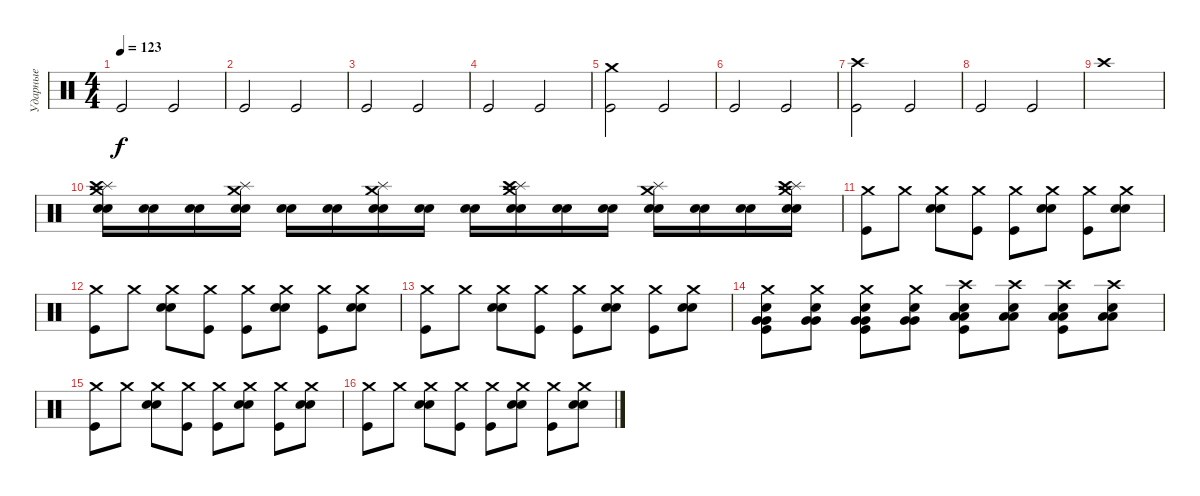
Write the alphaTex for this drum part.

\track ("Ударные" "Ударные") {instrument percussion}
\staff {score}
\articulation defaults
\ts (4 4)
\tempo 123
\clef neutral
\ks c "Kick (hit)".2{dy f} "Kick (hit)".2
|
"Kick (hit)".2 "Kick (hit)".2 |
"Kick (hit)".2 "Kick (hit)".2 |
"Kick (hit)".2 "Kick (hit)".2 |
("Crash medium (hit)" "Kick (hit)").2 "Kick (hit)".2 |
"Kick (hit)".2 "Kick (hit)".2 |
("Crash high (hit)" "Kick (hit)").2 "Kick (hit)".2 |
"Kick (hit)".2 "Kick (hit)".2 |
"Crash high (hit)".1 |
("Crash medium (hit)" "Splash (hit)" "Snare (hit) 2" "Snare (hit) 2" "Crash high (hit)").16 ("Snare (hit) 2" "Snare (hit) 2").16 ("Snare (hit) 2" "Snare (hit) 2").16 ("Crash medium (hit)" "Splash (hit)" "Snare (hit) 2" "Snare (hit) 2").16 ("Snare (hit) 2" "Snare (hit) 2").16 ("Snare (hit) 2" "Snare (hit) 2").16 ("Crash medium (hit)" "Splash (hit)" "Snare (hit) 2" "Snare (hit) 2").16 ("Snare (hit) 2" "Snare (hit) 2").16 ("Electric Snare (hit)" "Electric Snare (hit)").16 ("Crash medium (hit)" "Splash (hit)" "Electric Snare (hit)" "Electric Snare (hit)" "Crash high (hit)").16 ("Electric Snare (hit)" "Electric Snare (hit)").16 ("Electric Snare (hit)" "Electric Snare (hit)").16 ("Crash medium (hit)" "Splash (hit)" "Electric Snare (hit)" "Electric Snare (hit)").16 ("Electric Snare (hit)" "Electric Snare (hit)").16 ("Electric Snare (hit)" "Electric Snare (hit)").16 ("Crash medium (hit)" "Splash (hit)" "Electric Snare (hit)" "Electric Snare (hit)" "Crash high (hit)").16 |
("Crash medium (hit)" "Kick (hit)").8 "Crash medium (hit)".8 ("Crash medium (hit)" "Snare (hit) 2" "Snare (hit) 2").8 ("Crash medium (hit)" "Kick (hit)").8 ("Crash medium (hit)" "Kick (hit)").8 ("Crash medium (hit)" "Snare (hit) 2" "Snare (hit) 2").8 ("Crash medium (hit)" "Kick (hit)").8 ("Crash medium (hit)" "Electric Snare (hit)" "Electric Snare (hit)").8 |
("Crash medium (hit)" "Kick (hit)").8 "Crash medium (hit)".8 ("Crash medium (hit)" "Snare (hit) 2" "Snare (hit) 2").8 ("Crash medium (hit)" "Kick (hit)").8 ("Crash medium (hit)" "Kick (hit)").8 ("Crash medium (hit)" "Snare (hit) 2" "Snare (hit) 2").8 ("Crash medium (hit)" "Kick (hit)").8 ("Crash medium (hit)" "Electric Snare (hit)" "Electric Snare (hit)").8 |
("Crash medium (hit)" "Kick (hit)").8 "Crash medium (hit)".8 ("Crash medium (hit)" "Snare (hit) 2" "Snare (hit) 2").8 ("Crash medium (hit)" "Kick (hit)").8 ("Crash medium (hit)" "Kick (hit)").8 ("Crash medium (hit)" "Snare (hit) 2" "Snare (hit) 2").8 ("Crash medium (hit)" "Kick (hit)").8 ("Crash medium (hit)" "Electric Snare (hit)" "Electric Snare (hit)").8 |
("Very Low Tom (hit)" "Very Low Tom (hit)" "Crash medium (hit)" "Snare (hit) 2" "Kick (hit)").8 ("Very Low Tom (hit)" "Very Low Tom (hit)" "Crash medium (hit)" "Snare (hit) 2").8 ("Very Low Tom (hit)" "Very Low Tom (hit)" "Crash medium (hit)" "Snare (hit) 2" "Kick (hit)").8 ("Very Low Tom (hit)" "Very Low Tom (hit)" "Crash medium (hit)" "Snare (hit) 2").8 ("Low Floor Tom (hit)" "Low Floor Tom (hit)" "Crash high (hit)" "Electric Snare (hit)" "Kick (hit)").8 ("Low Floor Tom (hit)" "Low Floor Tom (hit)" "Crash high (hit)" "Electric Snare (hit)").8 ("Low Floor Tom (hit)" "Low Floor Tom (hit)" "Crash high (hit)" "Electric Snare (hit)" "Kick (hit)").8 ("Low Floor Tom (hit)" "Low Floor Tom (hit)" "Crash high (hit)" "Electric Snare (hit)").8 |
("Crash medium (hit)" "Kick (hit)").8 "Crash medium (hit)".8 ("Crash medium (hit)" "Snare (hit) 2" "Snare (hit) 2").8 ("Crash medium (hit)" "Kick (hit)").8 ("Crash medium (hit)" "Kick (hit)").8 ("Crash medium (hit)" "Snare (hit) 2" "Snare (hit) 2").8 ("Crash medium (hit)" "Kick (hit)").8 ("Crash medium (hit)" "Electric Snare (hit)" "Electric Snare (hit)").8 |
("Crash medium (hit)" "Kick (hit)").8 "Crash medium (hit)".8 ("Crash medium (hit)" "Snare (hit) 2" "Snare (hit) 2").8 ("Crash medium (hit)" "Kick (hit)").8 ("Crash medium (hit)" "Kick (hit)").8 ("Crash medium (hit)" "Snare (hit) 2" "Snare (hit) 2").8 ("Crash medium (hit)" "Kick (hit)").8 ("Crash medium (hit)" "Electric Snare (hit)" "Electric Snare (hit)").8
